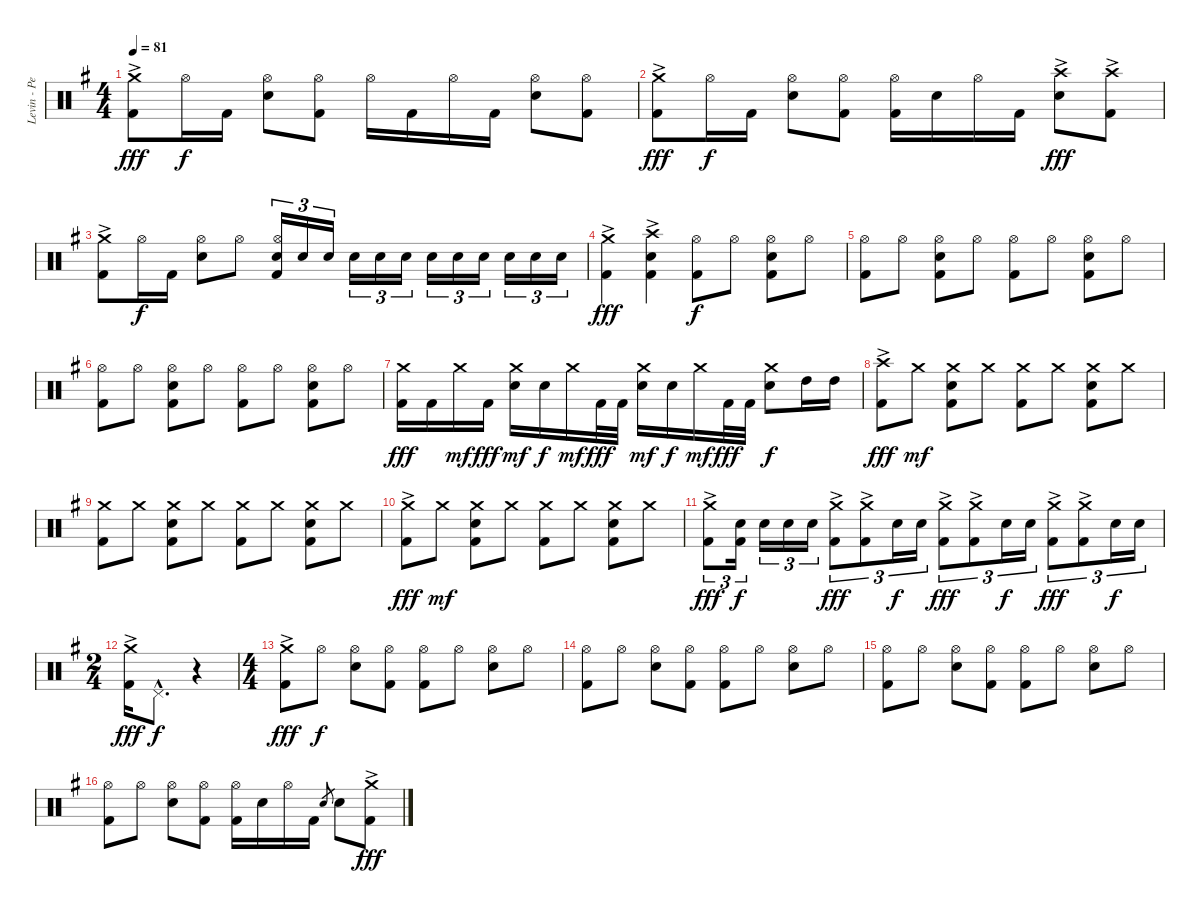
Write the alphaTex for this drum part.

\track ("Levin - Percussion" "Levin - Pe") {instrument percussion}
\staff {score}
\articulation defaults
\ts (4 4)
\tempo 81
\clef neutral
\ks g
("Crash medium (hit)"{ac} "Kick (hit) 2").8{dy fff} "Hi-Hat (open)".16{dy f} "Kick (hit) 2".16 ("Hi-Hat (open)" "Electric Snare (hit)").8 ("Hi-Hat (open)" "Kick (hit) 2").8 "Hi-Hat (open)".16 "Kick (hit) 2".16 "Hi-Hat (open)".16 "Kick (hit) 2".16 ("Hi-Hat (open)" "Electric Snare (hit)").8 ("Hi-Hat (open)" "Kick (hit) 2").8 |
("Crash medium (hit)"{ac} "Kick (hit) 2").8{dy fff} "Hi-Hat (open)".16{dy f} "Kick (hit) 2".16 ("Hi-Hat (open)" "Electric Snare (hit)").8 ("Hi-Hat (open)" "Kick (hit) 2").8 ("Hi-Hat (open)" "Kick (hit) 2").16 "Electric Snare (hit)".16 "Hi-Hat (open)".16 "Kick (hit) 2".16 ("Crash high (hit)"{ac} "Electric Snare (hit)").8{dy fff} ("Crash high (hit)"{ac} "Kick (hit) 2").8 |
("Crash medium (hit)"{ac} "Kick (hit) 2").8 "Hi-Hat (open)".16{dy f} "Kick (hit) 2".16 ("Hi-Hat (open)" "Electric Snare (hit)").8 "Hi-Hat (open)".8 ("Hi-Hat (open)" "Electric Snare (hit)" "Kick (hit) 2").16{tu (3 2)} "Electric Snare (hit)".16{tu (3 2)} "Electric Snare (hit)".16{tu (3 2)} "Electric Snare (hit)".16{tu (3 2)} "Electric Snare (hit)".16{tu (3 2)} "Electric Snare (hit)".16{tu (3 2)} "Electric Snare (hit)".16{tu (3 2)} "Electric Snare (hit)".16{tu (3 2)} "Electric Snare (hit)".16{tu (3 2)} "Electric Snare (hit)".16{tu (3 2)} "Electric Snare (hit)".16{tu (3 2)} "Electric Snare (hit)".16{tu (3 2)} |
("Crash medium (hit)"{ac} "Kick (hit) 2").4{dy fff} ("Crash high (hit)"{ac} "Electric Snare (hit)" "Kick (hit) 2").4 ("Hi-Hat (open)" "Kick (hit) 2").8{dy f} "Hi-Hat (open)".8 ("Hi-Hat (open)" "Electric Snare (hit)" "Kick (hit) 2").8 "Hi-Hat (open)".8 |
("Hi-Hat (open)" "Kick (hit) 2").8 "Hi-Hat (open)".8 ("Hi-Hat (open)" "Electric Snare (hit)" "Kick (hit) 2").8 "Hi-Hat (open)".8 ("Hi-Hat (open)" "Kick (hit) 2").8 "Hi-Hat (open)".8 ("Hi-Hat (open)" "Electric Snare (hit)" "Kick (hit) 2").8 "Hi-Hat (open)".8 |
("Hi-Hat (open)" "Kick (hit) 2").8 "Hi-Hat (open)".8 ("Hi-Hat (open)" "Electric Snare (hit)" "Kick (hit) 2").8 "Hi-Hat (open)".8 ("Hi-Hat (open)" "Kick (hit) 2").8 "Hi-Hat (open)".8 ("Hi-Hat (open)" "Electric Snare (hit)" "Kick (hit) 2").8 "Hi-Hat (open)".8 |
("Crash medium (hit)" "Kick (hit) 2").16{dy fff} "Kick (hit) 2".16 "Crash medium (hit)".16{dy mf} "Kick (hit) 2".16{dy fff} ("Crash medium (hit)" "Electric Snare (hit)").16{dy mf} "Electric Snare (hit)".16{dy f} "Crash medium (hit)".16{dy mf} "Kick (hit) 2".32{dy fff} "Kick (hit) 2".32 ("Crash medium (hit)" "Electric Snare (hit)").16{dy mf} "Electric Snare (hit)".16{dy f} "Crash medium (hit)".16{dy mf} "Kick (hit) 2".32{dy fff} "Kick (hit) 2".32 ("Crash medium (hit)" "Electric Snare (hit)").8{dy f} "High Tom (hit)".16 "High Tom (hit)".16 |
("Crash high (hit)"{ac} "Kick (hit) 2").8{dy fff} "Crash medium (hit)".8{dy mf} ("Crash medium (hit)" "Electric Snare (hit)" "Kick (hit) 2").8 "Crash medium (hit)".8 ("Crash medium (hit)" "Kick (hit) 2").8 "Crash medium (hit)".8 ("Crash medium (hit)" "Electric Snare (hit)" "Kick (hit) 2").8 "Crash medium (hit)".8 |
("Crash medium (hit)" "Kick (hit) 2").8 "Crash medium (hit)".8 ("Crash medium (hit)" "Electric Snare (hit)" "Kick (hit) 2").8 "Crash medium (hit)".8 ("Crash medium (hit)" "Kick (hit) 2").8 "Crash medium (hit)".8 ("Crash medium (hit)" "Electric Snare (hit)" "Kick (hit) 2").8 "Crash medium (hit)".8 |
("Crash medium (hit)"{ac} "Kick (hit) 2").8{dy fff} "Crash medium (hit)".8{dy mf} ("Crash medium (hit)" "Electric Snare (hit)" "Kick (hit) 2").8 "Crash medium (hit)".8 ("Crash medium (hit)" "Kick (hit) 2").8 "Crash medium (hit)".8 ("Crash medium (hit)" "Electric Snare (hit)" "Kick (hit) 2").8 "Crash medium (hit)".8 |
("Crash medium (hit)"{ac} "Kick (hit) 2").8{tu (3 2) dy fff} ("Electric Snare (hit)" "Kick (hit) 2").16{tu (3 2) dy f} "Electric Snare (hit)".16{tu (3 2)} "Electric Snare (hit)".16{tu (3 2)} "Electric Snare (hit)".16{tu (3 2)} ("Crash medium (hit)"{ac} "Kick (hit) 2").8{tu (3 2) dy fff} ("Crash medium (hit)"{ac} "Kick (hit) 2").8{tu (3 2)} "Electric Snare (hit)".16{tu (3 2) dy f} "Electric Snare (hit)".16{tu (3 2)} ("Crash medium (hit)"{ac} "Kick (hit) 2").8{tu (3 2) dy fff} ("Crash medium (hit)"{ac} "Kick (hit) 2").8{tu (3 2)} "Electric Snare (hit)".16{tu (3 2) dy f} "Electric Snare (hit)".16{tu (3 2)} ("Crash medium (hit)"{ac} "Kick (hit) 2").8{tu (3 2) dy fff} ("Crash medium (hit)"{ac} "Kick (hit) 2").8{tu (3 2)} "Electric Snare (hit)".16{tu (3 2) dy f} "Electric Snare (hit)".16{tu (3 2)} |
\ts (2 4)
("Crash medium (hit)"{ac} "Kick (hit) 2").16{dy fff} "Pedal Hi-Hat (hit)"{hac}.8{d dy f} r.4 |
\ts (4 4)
("Crash medium (hit)"{ac} "Kick (hit) 2"{ac}).8{dy fff} "Hi-Hat (open)".8{dy f} ("Hi-Hat (open)" "Electric Snare (hit)").8 ("Hi-Hat (open)" "Kick (hit) 2").8 ("Hi-Hat (open)" "Kick (hit) 2").8 "Hi-Hat (open)".8 ("Hi-Hat (open)" "Electric Snare (hit)").8 "Hi-Hat (open)".8 |
("Hi-Hat (open)" "Kick (hit) 2").8 "Hi-Hat (open)".8 ("Hi-Hat (open)" "Electric Snare (hit)").8 ("Hi-Hat (open)" "Kick (hit) 2").8 ("Hi-Hat (open)" "Kick (hit) 2").8 "Hi-Hat (open)".8 ("Hi-Hat (open)" "Electric Snare (hit)").8 "Hi-Hat (open)".8 |
("Hi-Hat (open)" "Kick (hit) 2").8 "Hi-Hat (open)".8 ("Hi-Hat (open)" "Electric Snare (hit)").8 ("Hi-Hat (open)" "Kick (hit) 2").8 ("Hi-Hat (open)" "Kick (hit) 2").8 "Hi-Hat (open)".8 ("Hi-Hat (open)" "Electric Snare (hit)").8 "Hi-Hat (open)".8 |
("Hi-Hat (open)" "Kick (hit) 2").8 "Hi-Hat (open)".8 ("Hi-Hat (open)" "Electric Snare (hit)").8 ("Hi-Hat (open)" "Kick (hit) 2").8 ("Hi-Hat (open)" "Kick (hit) 2").16 "Electric Snare (hit)".16 "Hi-Hat (open)".16 "Kick (hit) 2".16 "Electric Snare (hit)".8{gr} "Electric Snare (hit)".8 ("Crash medium (hit)"{ac} "Kick (hit) 2"{ac}).8{dy fff}
